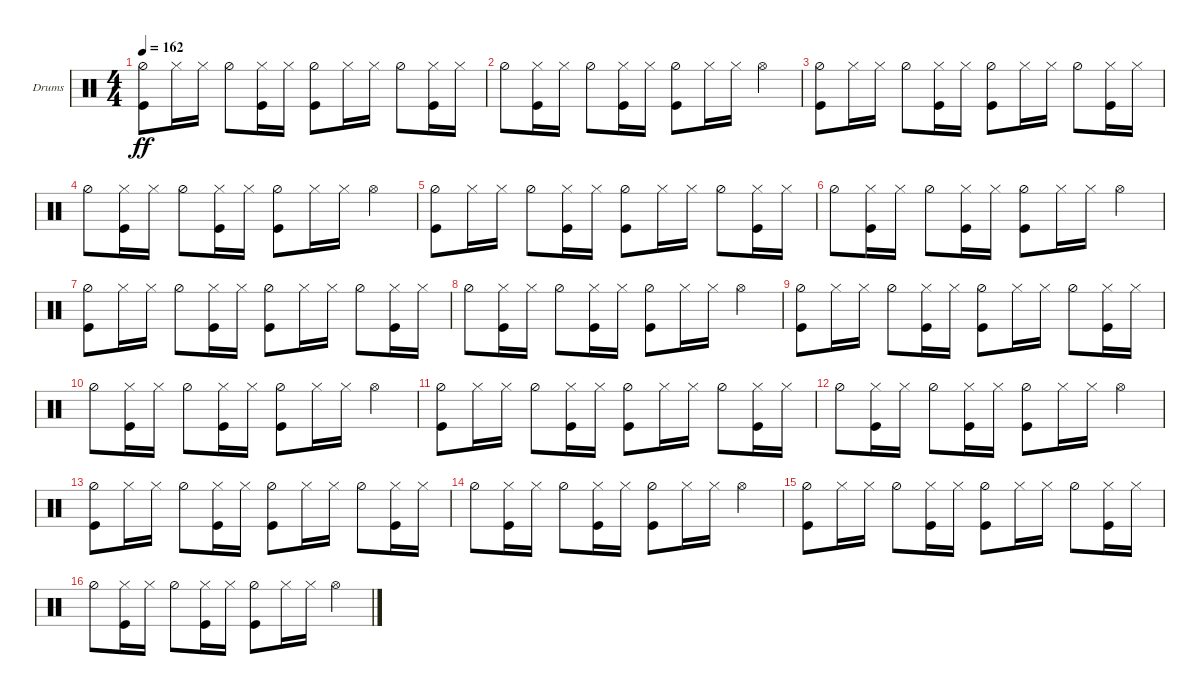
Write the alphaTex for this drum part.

\bracketExtendMode groupsimilarinstruments
\firstSystemTrackNameOrientation horizontal
\otherSystemsTrackNameOrientation horizontal
\track ("Drumkit" "Drums") {instrument percussion}
\staff {score}
\articulation defaults
\ts (4 4)
\tempo 162
\clef neutral
\ks c
("Hi-Hat (half)" "Kick (hit)").8{dy ff} "Hi-Hat (closed)".16 "Hi-Hat (closed)".16 "Hi-Hat (half)".8 ("Kick (hit)" "Hi-Hat (closed)").16 "Hi-Hat (closed)".16 ("Hi-Hat (half)" "Kick (hit)").8 "Hi-Hat (closed)".16 "Hi-Hat (closed)".16 "Hi-Hat (half)".8 ("Kick (hit)" "Hi-Hat (closed)").16 "Hi-Hat (closed)".16 |
"Hi-Hat (half)".8 ("Hi-Hat (closed)" "Kick (hit)").16 "Hi-Hat (closed)".16 "Hi-Hat (half)".8 ("Kick (hit)" "Hi-Hat (closed)").16 "Hi-Hat (closed)".16 ("Hi-Hat (half)" "Kick (hit)").8 "Hi-Hat (closed)".16 "Hi-Hat (closed)".16 "Hi-Hat (open)".4 |
("Hi-Hat (half)" "Kick (hit)").8 "Hi-Hat (closed)".16 "Hi-Hat (closed)".16 "Hi-Hat (half)".8 ("Kick (hit)" "Hi-Hat (closed)").16 "Hi-Hat (closed)".16 ("Hi-Hat (half)" "Kick (hit)").8 "Hi-Hat (closed)".16 "Hi-Hat (closed)".16 "Hi-Hat (half)".8 ("Kick (hit)" "Hi-Hat (closed)").16 "Hi-Hat (closed)".16 |
"Hi-Hat (half)".8 ("Hi-Hat (closed)" "Kick (hit)").16 "Hi-Hat (closed)".16 "Hi-Hat (half)".8 ("Kick (hit)" "Hi-Hat (closed)").16 "Hi-Hat (closed)".16 ("Hi-Hat (half)" "Kick (hit)").8 "Hi-Hat (closed)".16 "Hi-Hat (closed)".16 "Hi-Hat (open)".4 |
("Hi-Hat (half)" "Kick (hit)").8 "Hi-Hat (closed)".16 "Hi-Hat (closed)".16 "Hi-Hat (half)".8 ("Kick (hit)" "Hi-Hat (closed)").16 "Hi-Hat (closed)".16 ("Hi-Hat (half)" "Kick (hit)").8 "Hi-Hat (closed)".16 "Hi-Hat (closed)".16 "Hi-Hat (half)".8 ("Kick (hit)" "Hi-Hat (closed)").16 "Hi-Hat (closed)".16 |
"Hi-Hat (half)".8 ("Hi-Hat (closed)" "Kick (hit)").16 "Hi-Hat (closed)".16 "Hi-Hat (half)".8 ("Kick (hit)" "Hi-Hat (closed)").16 "Hi-Hat (closed)".16 ("Hi-Hat (half)" "Kick (hit)").8 "Hi-Hat (closed)".16 "Hi-Hat (closed)".16 "Hi-Hat (open)".4 |
("Hi-Hat (half)" "Kick (hit)").8 "Hi-Hat (closed)".16 "Hi-Hat (closed)".16 "Hi-Hat (half)".8 ("Kick (hit)" "Hi-Hat (closed)").16 "Hi-Hat (closed)".16 ("Hi-Hat (half)" "Kick (hit)").8 "Hi-Hat (closed)".16 "Hi-Hat (closed)".16 "Hi-Hat (half)".8 ("Kick (hit)" "Hi-Hat (closed)").16 "Hi-Hat (closed)".16 |
"Hi-Hat (half)".8 ("Hi-Hat (closed)" "Kick (hit)").16 "Hi-Hat (closed)".16 "Hi-Hat (half)".8 ("Kick (hit)" "Hi-Hat (closed)").16 "Hi-Hat (closed)".16 ("Hi-Hat (half)" "Kick (hit)").8 "Hi-Hat (closed)".16 "Hi-Hat (closed)".16 "Hi-Hat (open)".4 |
("Hi-Hat (half)" "Kick (hit)").8 "Hi-Hat (closed)".16 "Hi-Hat (closed)".16 "Hi-Hat (half)".8 ("Kick (hit)" "Hi-Hat (closed)").16 "Hi-Hat (closed)".16 ("Hi-Hat (half)" "Kick (hit)").8 "Hi-Hat (closed)".16 "Hi-Hat (closed)".16 "Hi-Hat (half)".8 ("Kick (hit)" "Hi-Hat (closed)").16 "Hi-Hat (closed)".16 |
"Hi-Hat (half)".8 ("Hi-Hat (closed)" "Kick (hit)").16 "Hi-Hat (closed)".16 "Hi-Hat (half)".8 ("Kick (hit)" "Hi-Hat (closed)").16 "Hi-Hat (closed)".16 ("Hi-Hat (half)" "Kick (hit)").8 "Hi-Hat (closed)".16 "Hi-Hat (closed)".16 "Hi-Hat (open)".4 |
("Hi-Hat (half)" "Kick (hit)").8 "Hi-Hat (closed)".16 "Hi-Hat (closed)".16 "Hi-Hat (half)".8 ("Kick (hit)" "Hi-Hat (closed)").16 "Hi-Hat (closed)".16 ("Hi-Hat (half)" "Kick (hit)").8 "Hi-Hat (closed)".16 "Hi-Hat (closed)".16 "Hi-Hat (half)".8 ("Kick (hit)" "Hi-Hat (closed)").16 "Hi-Hat (closed)".16 |
"Hi-Hat (half)".8 ("Hi-Hat (closed)" "Kick (hit)").16 "Hi-Hat (closed)".16 "Hi-Hat (half)".8 ("Kick (hit)" "Hi-Hat (closed)").16 "Hi-Hat (closed)".16 ("Hi-Hat (half)" "Kick (hit)").8 "Hi-Hat (closed)".16 "Hi-Hat (closed)".16 "Hi-Hat (open)".4 |
("Hi-Hat (half)" "Kick (hit)").8 "Hi-Hat (closed)".16 "Hi-Hat (closed)".16 "Hi-Hat (half)".8 ("Kick (hit)" "Hi-Hat (closed)").16 "Hi-Hat (closed)".16 ("Hi-Hat (half)" "Kick (hit)").8 "Hi-Hat (closed)".16 "Hi-Hat (closed)".16 "Hi-Hat (half)".8 ("Kick (hit)" "Hi-Hat (closed)").16 "Hi-Hat (closed)".16 |
"Hi-Hat (half)".8 ("Hi-Hat (closed)" "Kick (hit)").16 "Hi-Hat (closed)".16 "Hi-Hat (half)".8 ("Kick (hit)" "Hi-Hat (closed)").16 "Hi-Hat (closed)".16 ("Hi-Hat (half)" "Kick (hit)").8 "Hi-Hat (closed)".16 "Hi-Hat (closed)".16 "Hi-Hat (open)".4 |
("Hi-Hat (half)" "Kick (hit)").8 "Hi-Hat (closed)".16 "Hi-Hat (closed)".16 "Hi-Hat (half)".8 ("Kick (hit)" "Hi-Hat (closed)").16 "Hi-Hat (closed)".16 ("Hi-Hat (half)" "Kick (hit)").8 "Hi-Hat (closed)".16 "Hi-Hat (closed)".16 "Hi-Hat (half)".8 ("Kick (hit)" "Hi-Hat (closed)").16 "Hi-Hat (closed)".16 |
"Hi-Hat (half)".8 ("Hi-Hat (closed)" "Kick (hit)").16 "Hi-Hat (closed)".16 "Hi-Hat (half)".8 ("Kick (hit)" "Hi-Hat (closed)").16 "Hi-Hat (closed)".16 ("Hi-Hat (half)" "Kick (hit)").8 "Hi-Hat (closed)".16 "Hi-Hat (closed)".16 "Hi-Hat (open)".4
